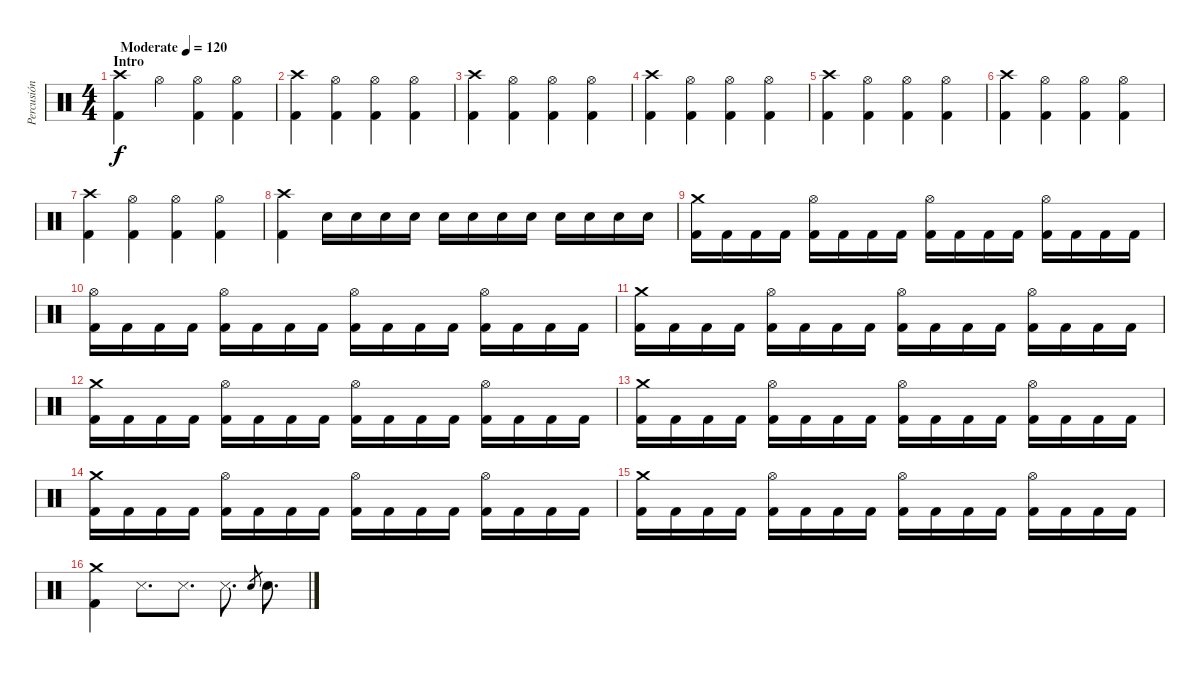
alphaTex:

\track ("Percusión" "Percusión") {instrument percussion}
\staff {score}
\articulation defaults
\ts (4 4)
\section ("" "Intro")
\tempo (120 "Moderate")
\clef neutral
\ks c
("Crash high (hit)" "Kick (hit) 2").4{dy f} "Hi-Hat (open)".4 ("Hi-Hat (open)" "Kick (hit) 2").4 ("Hi-Hat (open)" "Kick (hit) 2").4 |
("Crash high (hit)" "Kick (hit) 2").4 ("Hi-Hat (open)" "Kick (hit) 2").4 ("Hi-Hat (open)" "Kick (hit) 2").4 ("Hi-Hat (open)" "Kick (hit) 2").4 |
("Crash high (hit)" "Kick (hit) 2").4 ("Hi-Hat (open)" "Kick (hit) 2").4 ("Hi-Hat (open)" "Kick (hit) 2").4 ("Hi-Hat (open)" "Kick (hit) 2").4 |
("Crash high (hit)" "Kick (hit) 2").4 ("Hi-Hat (open)" "Kick (hit) 2").4 ("Hi-Hat (open)" "Kick (hit) 2").4 ("Hi-Hat (open)" "Kick (hit) 2").4 |
("Crash high (hit)" "Kick (hit) 2").4 ("Hi-Hat (open)" "Kick (hit) 2").4 ("Hi-Hat (open)" "Kick (hit) 2").4 ("Hi-Hat (open)" "Kick (hit) 2").4 |
("Crash high (hit)" "Kick (hit) 2").4 ("Hi-Hat (open)" "Kick (hit) 2").4 ("Hi-Hat (open)" "Kick (hit) 2").4 ("Hi-Hat (open)" "Kick (hit) 2").4 |
("Crash high (hit)" "Kick (hit) 2").4 ("Hi-Hat (open)" "Kick (hit) 2").4 ("Hi-Hat (open)" "Kick (hit) 2").4 ("Hi-Hat (open)" "Kick (hit) 2").4 |
("Crash high (hit)" "Kick (hit) 2").4 "Snare (hit) 2".16{volume 5} "Snare (hit) 2".16{volume 9} "Snare (hit) 2".16 "Snare (hit) 2".16 "Snare (hit) 2".16 "Snare (hit) 2".16 "Snare (hit) 2".16 "Snare (hit) 2".16 "Snare (hit) 2".16 "Snare (hit) 2".16 "Snare (hit) 2".16 "Snare (hit) 2".16 |
("Crash medium (hit)" "Kick (hit) 2").16{volume 16} "Kick (hit) 2".16{volume 16} "Kick (hit) 2".16 "Kick (hit) 2".16 ("Hi-Hat (open)" "Kick (hit) 2").16 "Kick (hit) 2".16 "Kick (hit) 2".16 "Kick (hit) 2".16 ("Hi-Hat (open)" "Kick (hit) 2").16 "Kick (hit) 2".16 "Kick (hit) 2".16 "Kick (hit) 2".16 ("Hi-Hat (open)" "Kick (hit) 2").16 "Kick (hit) 2".16 "Kick (hit) 2".16 "Kick (hit) 2".16 |
("Hi-Hat (open)" "Kick (hit) 2").16 "Kick (hit) 2".16 "Kick (hit) 2".16 "Kick (hit) 2".16 ("Hi-Hat (open)" "Kick (hit) 2").16 "Kick (hit) 2".16 "Kick (hit) 2".16 "Kick (hit) 2".16 ("Hi-Hat (open)" "Kick (hit) 2").16 "Kick (hit) 2".16 "Kick (hit) 2".16 "Kick (hit) 2".16 ("Hi-Hat (open)" "Kick (hit) 2").16 "Kick (hit) 2".16 "Kick (hit) 2".16 "Kick (hit) 2".16 |
("Crash medium (hit)" "Kick (hit) 2").16 "Kick (hit) 2".16 "Kick (hit) 2".16 "Kick (hit) 2".16 ("Hi-Hat (open)" "Kick (hit) 2").16 "Kick (hit) 2".16 "Kick (hit) 2".16 "Kick (hit) 2".16 ("Hi-Hat (open)" "Kick (hit) 2").16 "Kick (hit) 2".16 "Kick (hit) 2".16 "Kick (hit) 2".16 ("Hi-Hat (open)" "Kick (hit) 2").16 "Kick (hit) 2".16 "Kick (hit) 2".16 "Kick (hit) 2".16 |
("Crash medium (hit)" "Kick (hit) 2").16 "Kick (hit) 2".16 "Kick (hit) 2".16 "Kick (hit) 2".16 ("Hi-Hat (open)" "Kick (hit) 2").16 "Kick (hit) 2".16 "Kick (hit) 2".16 "Kick (hit) 2".16 ("Hi-Hat (open)" "Kick (hit) 2").16 "Kick (hit) 2".16 "Kick (hit) 2".16 "Kick (hit) 2".16 ("Hi-Hat (open)" "Kick (hit) 2").16 "Kick (hit) 2".16 "Kick (hit) 2".16 "Kick (hit) 2".16 |
("Crash medium (hit)" "Kick (hit) 2").16{volume 16} "Kick (hit) 2".16{volume 16} "Kick (hit) 2".16 "Kick (hit) 2".16 ("Hi-Hat (open)" "Kick (hit) 2").16 "Kick (hit) 2".16 "Kick (hit) 2".16 "Kick (hit) 2".16 ("Hi-Hat (open)" "Kick (hit) 2").16 "Kick (hit) 2".16 "Kick (hit) 2".16 "Kick (hit) 2".16 ("Hi-Hat (open)" "Kick (hit) 2").16 "Kick (hit) 2".16 "Kick (hit) 2".16 "Kick (hit) 2".16 |
("Crash medium (hit)" "Kick (hit) 2").16 "Kick (hit) 2".16 "Kick (hit) 2".16 "Kick (hit) 2".16 ("Hi-Hat (open)" "Kick (hit) 2").16 "Kick (hit) 2".16 "Kick (hit) 2".16 "Kick (hit) 2".16 ("Hi-Hat (open)" "Kick (hit) 2").16 "Kick (hit) 2".16 "Kick (hit) 2".16 "Kick (hit) 2".16 ("Hi-Hat (open)" "Kick (hit) 2").16 "Kick (hit) 2".16 "Kick (hit) 2".16 "Kick (hit) 2".16 |
("Crash medium (hit)" "Kick (hit) 2").16 "Kick (hit) 2".16 "Kick (hit) 2".16 "Kick (hit) 2".16 ("Hi-Hat (open)" "Kick (hit) 2").16 "Kick (hit) 2".16 "Kick (hit) 2".16 "Kick (hit) 2".16 ("Hi-Hat (open)" "Kick (hit) 2").16 "Kick (hit) 2".16 "Kick (hit) 2".16 "Kick (hit) 2".16 ("Hi-Hat (open)" "Kick (hit) 2").16 "Kick (hit) 2".16 "Kick (hit) 2".16 "Kick (hit) 2".16 |
("Crash medium (hit)" "Kick (hit) 2").4 "Snare (side stick) 3".8{d} "Snare (side stick) 3".8{d} "Snare (side stick) 3".8{d} "Snare (hit) 2".8{gr} "Snare (hit) 2".8{d}
